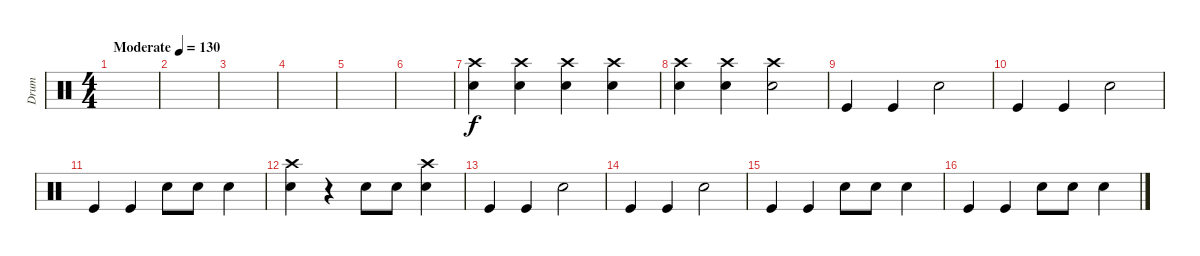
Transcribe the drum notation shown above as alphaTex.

\track ("Drum" "Drum") {instrument percussion}
\staff {score}
\articulation defaults
\ts (4 4)
\tempo (130 "Moderate")
\clef neutral
\ks c
|
|
|
|
|
|
("Crash high (hit)" "Snare (hit) 2").4 ("Crash high (hit)" "Snare (hit) 2").4 ("Crash high (hit)" "Snare (hit) 2").4 ("Crash high (hit)" "Snare (hit) 2").4 |
("Crash high (hit)" "Snare (hit) 2").4 ("Crash high (hit)" "Snare (hit) 2").4 ("Crash high (hit)" "Snare (hit) 2").2 |
"Kick (hit)".4 "Kick (hit)".4 "Snare (hit) 2".2 |
"Kick (hit)".4 "Kick (hit)".4 "Snare (hit) 2".2 |
"Kick (hit)".4 "Kick (hit)".4 "Snare (hit) 2".8 "Snare (hit) 2".8 "Snare (hit) 2".4 |
("Snare (hit) 2" "Crash high (hit)").4 r.4 "Snare (hit) 2".8 "Snare (hit) 2".8 ("Snare (hit) 2" "Crash high (hit)").4 |
"Kick (hit)".4 "Kick (hit)".4 "Snare (hit) 2".2 |
"Kick (hit)".4 "Kick (hit)".4 "Snare (hit) 2".2 |
"Kick (hit)".4 "Kick (hit)".4 "Snare (hit) 2".8 "Snare (hit) 2".8 "Snare (hit) 2".4 |
"Kick (hit)".4 "Kick (hit)".4 "Snare (hit) 2".8 "Snare (hit) 2".8 "Snare (hit) 2".4
